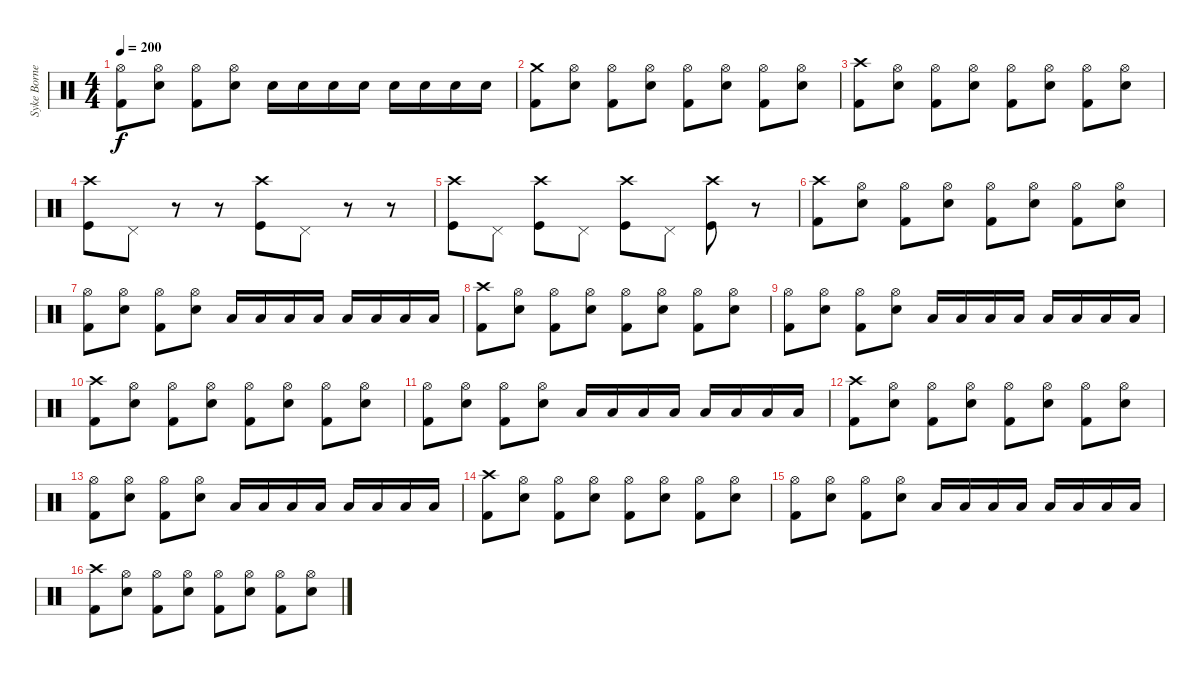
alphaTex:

\track ("Syke Bornetto (Drums)" "Syke Borne") {instrument percussion}
\staff {score}
\articulation defaults
\ts (4 4)
\tempo 200
\clef neutral
\ks c
("Hi-Hat (open)" "Kick (hit) 2").8{dy f} ("Hi-Hat (open)" "Electric Snare (hit)").8 ("Hi-Hat (open)" "Kick (hit) 2").8 ("Hi-Hat (open)" "Electric Snare (hit)").8 "Electric Snare (hit)".16 "Electric Snare (hit)".16 "Electric Snare (hit)".16 "Electric Snare (hit)".16 "Electric Snare (hit)".16 "Electric Snare (hit)".16 "Electric Snare (hit)".16 "Electric Snare (hit)".16 |
("Crash medium (hit)" "Kick (hit) 2").8 ("Hi-Hat (open)" "Electric Snare (hit)").8 ("Hi-Hat (open)" "Kick (hit) 2").8 ("Hi-Hat (open)" "Electric Snare (hit)").8 ("Hi-Hat (open)" "Kick (hit) 2").8 ("Hi-Hat (open)" "Electric Snare (hit)").8 ("Hi-Hat (open)" "Kick (hit) 2").8 ("Hi-Hat (open)" "Electric Snare (hit)").8 |
("Crash high (hit)" "Kick (hit) 2").8 ("Hi-Hat (open)" "Electric Snare (hit)").8 ("Hi-Hat (open)" "Kick (hit) 2").8 ("Hi-Hat (open)" "Electric Snare (hit)").8 ("Hi-Hat (open)" "Kick (hit) 2").8 ("Hi-Hat (open)" "Electric Snare (hit)").8 ("Hi-Hat (open)" "Kick (hit) 2").8 ("Hi-Hat (open)" "Electric Snare (hit)").8 |
("Crash high (hit)" "Kick (hit)").8{volume 13} "Pedal Hi-Hat (hit)"{x}.8{volume 0} r.8 r.8 ("Crash high (hit)" "Kick (hit)").8{volume 13} "Pedal Hi-Hat (hit)"{x}.8{volume 0} r.8 r.8 |
("Crash high (hit)" "Kick (hit)").8{volume 13} "Pedal Hi-Hat (hit)"{x}.8{volume 0} ("Crash high (hit)" "Kick (hit)").8{volume 13} "Pedal Hi-Hat (hit)"{x}.8{volume 0} ("Crash high (hit)" "Kick (hit)").8{volume 13} "Pedal Hi-Hat (hit)"{x}.8{volume 0} ("Crash high (hit)" "Kick (hit)").8{volume 13} r.8 |
("Crash high (hit)" "Kick (hit) 2").8 ("Hi-Hat (open)" "Electric Snare (hit)").8 ("Hi-Hat (open)" "Kick (hit) 2").8 ("Hi-Hat (open)" "Electric Snare (hit)").8 ("Hi-Hat (open)" "Kick (hit) 2").8 ("Hi-Hat (open)" "Electric Snare (hit)").8 ("Hi-Hat (open)" "Kick (hit) 2").8 ("Hi-Hat (open)" "Electric Snare (hit)").8 |
("Hi-Hat (open)" "Kick (hit) 2").8 ("Hi-Hat (open)" "Electric Snare (hit)").8 ("Hi-Hat (open)" "Kick (hit) 2").8 ("Hi-Hat (open)" "Electric Snare (hit)").8 "Low Floor Tom (hit)".16 "Low Floor Tom (hit)".16 "Low Floor Tom (hit)".16 "Low Floor Tom (hit)".16 "Low Tom (hit)".16 "Low Tom (hit)".16 "Low Tom (hit)".16 "Low Tom (hit)".16 |
("Crash high (hit)" "Kick (hit) 2").8 ("Hi-Hat (open)" "Electric Snare (hit)").8 ("Hi-Hat (open)" "Kick (hit) 2").8 ("Hi-Hat (open)" "Electric Snare (hit)").8 ("Hi-Hat (open)" "Kick (hit) 2").8 ("Hi-Hat (open)" "Electric Snare (hit)").8 ("Hi-Hat (open)" "Kick (hit) 2").8 ("Hi-Hat (open)" "Electric Snare (hit)").8 |
("Hi-Hat (open)" "Kick (hit) 2").8 ("Hi-Hat (open)" "Electric Snare (hit)").8 ("Hi-Hat (open)" "Kick (hit) 2").8 ("Hi-Hat (open)" "Electric Snare (hit)").8 "Low Floor Tom (hit)".16 "Low Floor Tom (hit)".16 "Low Floor Tom (hit)".16 "Low Floor Tom (hit)".16 "Low Tom (hit)".16 "Low Tom (hit)".16 "Low Tom (hit)".16 "Low Tom (hit)".16 |
("Crash high (hit)" "Kick (hit) 2").8 ("Hi-Hat (open)" "Electric Snare (hit)").8 ("Hi-Hat (open)" "Kick (hit) 2").8 ("Hi-Hat (open)" "Electric Snare (hit)").8 ("Hi-Hat (open)" "Kick (hit) 2").8 ("Hi-Hat (open)" "Electric Snare (hit)").8 ("Hi-Hat (open)" "Kick (hit) 2").8 ("Hi-Hat (open)" "Electric Snare (hit)").8 |
("Hi-Hat (open)" "Kick (hit) 2").8 ("Hi-Hat (open)" "Electric Snare (hit)").8 ("Hi-Hat (open)" "Kick (hit) 2").8 ("Hi-Hat (open)" "Electric Snare (hit)").8 "Low Floor Tom (hit)".16 "Low Floor Tom (hit)".16 "Low Floor Tom (hit)".16 "Low Floor Tom (hit)".16 "Low Tom (hit)".16 "Low Tom (hit)".16 "Low Tom (hit)".16 "Low Tom (hit)".16 |
("Crash high (hit)" "Kick (hit) 2").8 ("Hi-Hat (open)" "Electric Snare (hit)").8 ("Hi-Hat (open)" "Kick (hit) 2").8 ("Hi-Hat (open)" "Electric Snare (hit)").8 ("Hi-Hat (open)" "Kick (hit) 2").8 ("Hi-Hat (open)" "Electric Snare (hit)").8 ("Hi-Hat (open)" "Kick (hit) 2").8 ("Hi-Hat (open)" "Electric Snare (hit)").8 |
("Hi-Hat (open)" "Kick (hit) 2").8 ("Hi-Hat (open)" "Electric Snare (hit)").8 ("Hi-Hat (open)" "Kick (hit) 2").8 ("Hi-Hat (open)" "Electric Snare (hit)").8 "Low Floor Tom (hit)".16 "Low Floor Tom (hit)".16 "Low Floor Tom (hit)".16 "Low Floor Tom (hit)".16 "Low Tom (hit)".16 "Low Tom (hit)".16 "Low Tom (hit)".16 "Low Tom (hit)".16 |
("Crash high (hit)" "Kick (hit) 2").8 ("Hi-Hat (open)" "Electric Snare (hit)").8 ("Hi-Hat (open)" "Kick (hit) 2").8 ("Hi-Hat (open)" "Electric Snare (hit)").8 ("Hi-Hat (open)" "Kick (hit) 2").8 ("Hi-Hat (open)" "Electric Snare (hit)").8 ("Hi-Hat (open)" "Kick (hit) 2").8 ("Hi-Hat (open)" "Electric Snare (hit)").8 |
("Hi-Hat (open)" "Kick (hit) 2").8 ("Hi-Hat (open)" "Electric Snare (hit)").8 ("Hi-Hat (open)" "Kick (hit) 2").8 ("Hi-Hat (open)" "Electric Snare (hit)").8 "Low Floor Tom (hit)".16 "Low Floor Tom (hit)".16 "Low Floor Tom (hit)".16 "Low Floor Tom (hit)".16 "Low Tom (hit)".16 "Low Tom (hit)".16 "Low Tom (hit)".16 "Low Tom (hit)".16 |
("Crash high (hit)" "Kick (hit) 2").8 ("Hi-Hat (open)" "Electric Snare (hit)").8 ("Hi-Hat (open)" "Kick (hit) 2").8 ("Hi-Hat (open)" "Electric Snare (hit)").8 ("Hi-Hat (open)" "Kick (hit) 2").8 ("Hi-Hat (open)" "Electric Snare (hit)").8 ("Hi-Hat (open)" "Kick (hit) 2").8 ("Hi-Hat (open)" "Electric Snare (hit)").8
